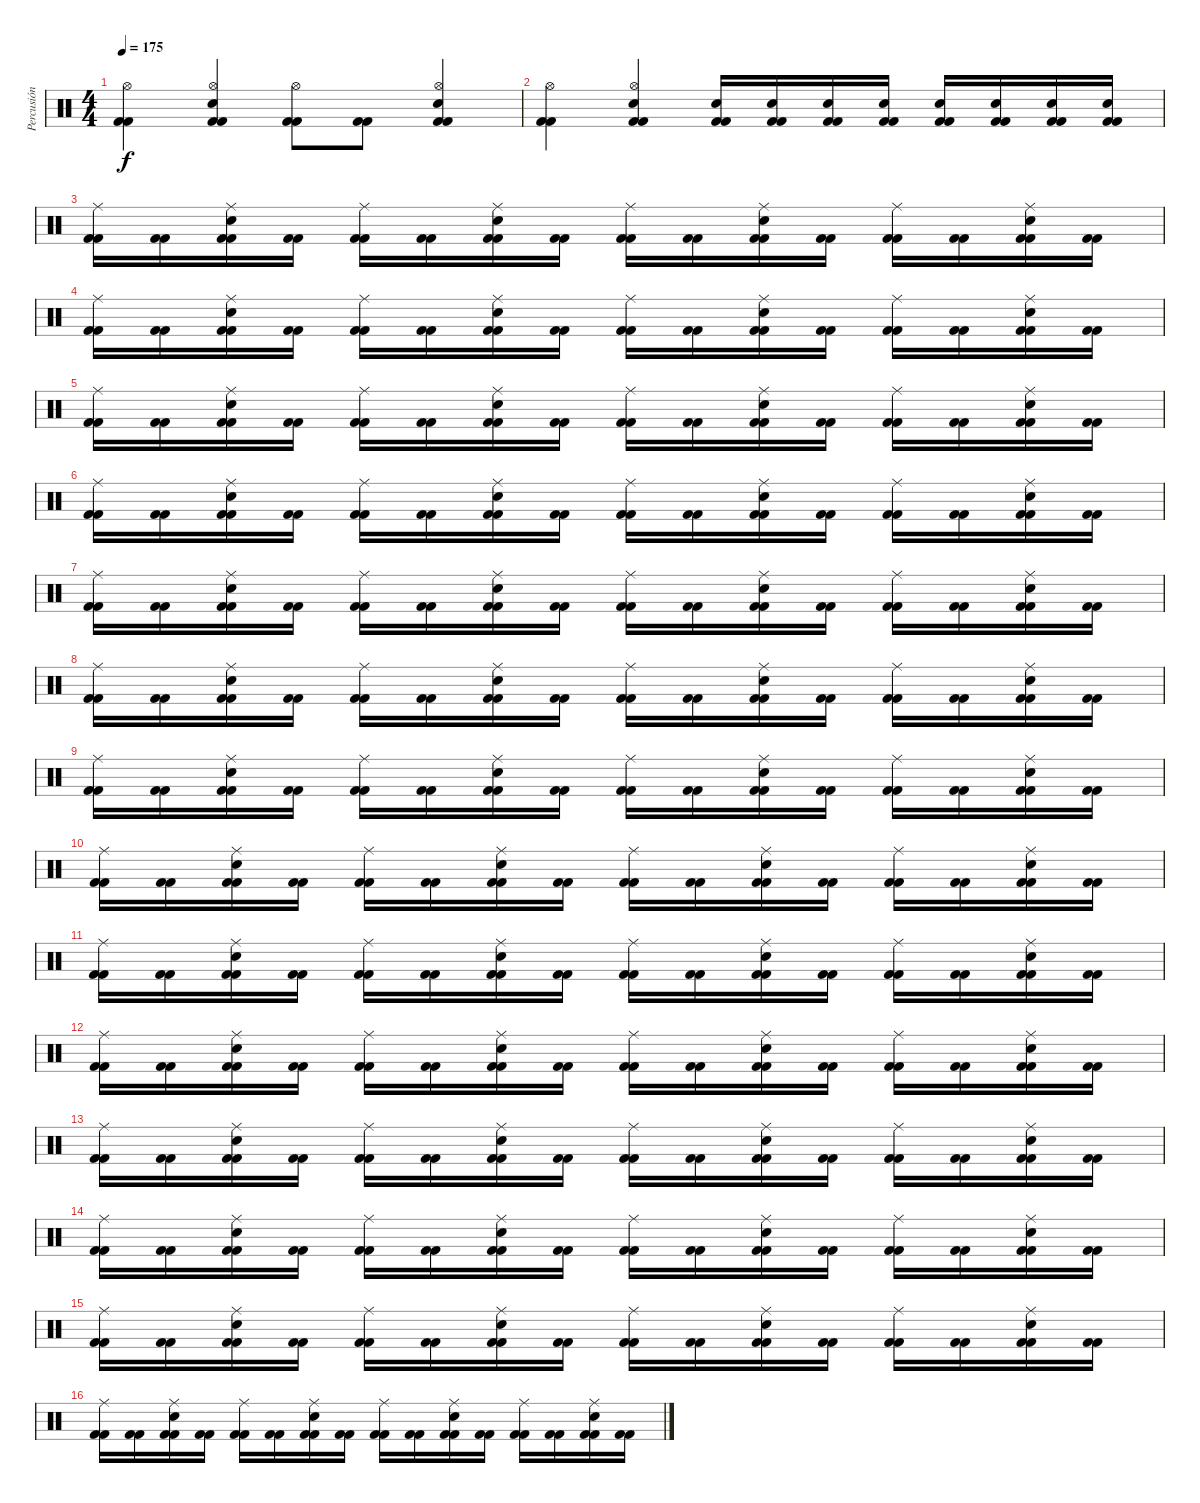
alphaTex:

\track ("Percusión" "Percusión") {instrument percussion}
\staff {score}
\articulation defaults
\ts (4 4)
\tempo 175
\clef neutral
\ks c
("Kick (hit) 2" "Kick (hit) 2" "Hi-Hat (open)").4{dy f} ("Kick (hit) 2" "Kick (hit) 2" "Electric Snare (hit)" "Hi-Hat (open)").4 ("Kick (hit) 2" "Kick (hit) 2" "Hi-Hat (open)").8 ("Kick (hit) 2" "Kick (hit) 2").8 ("Kick (hit) 2" "Kick (hit) 2" "Electric Snare (hit)" "Hi-Hat (open)").4 |
("Kick (hit) 2" "Kick (hit) 2" "Hi-Hat (open)").4 ("Kick (hit) 2" "Kick (hit) 2" "Electric Snare (hit)" "Hi-Hat (open)").4 ("Kick (hit) 2" "Kick (hit) 2" "Electric Snare (hit)").16 ("Kick (hit) 2" "Kick (hit) 2" "Electric Snare (hit)").16 ("Kick (hit) 2" "Kick (hit) 2" "Electric Snare (hit)").16 ("Kick (hit) 2" "Kick (hit) 2" "Electric Snare (hit)").16 ("Kick (hit) 2" "Kick (hit) 2" "Electric Snare (hit)").16 ("Kick (hit) 2" "Kick (hit) 2" "Electric Snare (hit)").16 ("Kick (hit) 2" "Kick (hit) 2" "Electric Snare (hit)").16 ("Kick (hit) 2" "Kick (hit) 2" "Electric Snare (hit)").16 |
("Kick (hit) 2" "Kick (hit) 2" "Ride (middle)").16 ("Kick (hit) 2" "Kick (hit) 2").16 ("Kick (hit) 2" "Kick (hit) 2" "Electric Snare (hit)" "Ride (middle)").16 ("Kick (hit) 2" "Kick (hit) 2").16 ("Kick (hit) 2" "Kick (hit) 2" "Ride (middle)").16 ("Kick (hit) 2" "Kick (hit) 2").16 ("Kick (hit) 2" "Kick (hit) 2" "Electric Snare (hit)" "Ride (middle)").16 ("Kick (hit) 2" "Kick (hit) 2").16 ("Kick (hit) 2" "Kick (hit) 2" "Ride (middle)").16 ("Kick (hit) 2" "Kick (hit) 2").16 ("Kick (hit) 2" "Kick (hit) 2" "Electric Snare (hit)" "Ride (middle)").16 ("Kick (hit) 2" "Kick (hit) 2").16 ("Kick (hit) 2" "Kick (hit) 2" "Ride (middle)").16 ("Kick (hit) 2" "Kick (hit) 2").16 ("Kick (hit) 2" "Kick (hit) 2" "Electric Snare (hit)" "Ride (middle)").16 ("Kick (hit) 2" "Kick (hit) 2").16 |
("Kick (hit) 2" "Kick (hit) 2" "Ride (middle)").16 ("Kick (hit) 2" "Kick (hit) 2").16 ("Kick (hit) 2" "Kick (hit) 2" "Electric Snare (hit)" "Ride (middle)").16 ("Kick (hit) 2" "Kick (hit) 2").16 ("Kick (hit) 2" "Kick (hit) 2" "Ride (middle)").16 ("Kick (hit) 2" "Kick (hit) 2").16 ("Kick (hit) 2" "Kick (hit) 2" "Electric Snare (hit)" "Ride (middle)").16 ("Kick (hit) 2" "Kick (hit) 2").16 ("Kick (hit) 2" "Kick (hit) 2" "Ride (middle)").16 ("Kick (hit) 2" "Kick (hit) 2").16 ("Kick (hit) 2" "Kick (hit) 2" "Electric Snare (hit)" "Ride (middle)").16 ("Kick (hit) 2" "Kick (hit) 2").16 ("Kick (hit) 2" "Kick (hit) 2" "Ride (middle)").16 ("Kick (hit) 2" "Kick (hit) 2").16 ("Kick (hit) 2" "Kick (hit) 2" "Electric Snare (hit)" "Ride (middle)").16 ("Kick (hit) 2" "Kick (hit) 2").16 |
("Kick (hit) 2" "Kick (hit) 2" "Ride (middle)").16 ("Kick (hit) 2" "Kick (hit) 2").16 ("Kick (hit) 2" "Kick (hit) 2" "Electric Snare (hit)" "Ride (middle)").16 ("Kick (hit) 2" "Kick (hit) 2").16 ("Kick (hit) 2" "Kick (hit) 2" "Ride (middle)").16 ("Kick (hit) 2" "Kick (hit) 2").16 ("Kick (hit) 2" "Kick (hit) 2" "Electric Snare (hit)" "Ride (middle)").16 ("Kick (hit) 2" "Kick (hit) 2").16 ("Kick (hit) 2" "Kick (hit) 2" "Ride (middle)").16 ("Kick (hit) 2" "Kick (hit) 2").16 ("Kick (hit) 2" "Kick (hit) 2" "Electric Snare (hit)" "Ride (middle)").16 ("Kick (hit) 2" "Kick (hit) 2").16 ("Kick (hit) 2" "Kick (hit) 2" "Ride (middle)").16 ("Kick (hit) 2" "Kick (hit) 2").16 ("Kick (hit) 2" "Kick (hit) 2" "Electric Snare (hit)" "Ride (middle)").16 ("Kick (hit) 2" "Kick (hit) 2").16 |
("Kick (hit) 2" "Kick (hit) 2" "Ride (middle)").16 ("Kick (hit) 2" "Kick (hit) 2").16 ("Kick (hit) 2" "Kick (hit) 2" "Electric Snare (hit)" "Ride (middle)").16 ("Kick (hit) 2" "Kick (hit) 2").16 ("Kick (hit) 2" "Kick (hit) 2" "Ride (middle)").16 ("Kick (hit) 2" "Kick (hit) 2").16 ("Kick (hit) 2" "Kick (hit) 2" "Electric Snare (hit)" "Ride (middle)").16 ("Kick (hit) 2" "Kick (hit) 2").16 ("Kick (hit) 2" "Kick (hit) 2" "Ride (middle)").16 ("Kick (hit) 2" "Kick (hit) 2").16 ("Kick (hit) 2" "Kick (hit) 2" "Electric Snare (hit)" "Ride (middle)").16 ("Kick (hit) 2" "Kick (hit) 2").16 ("Kick (hit) 2" "Kick (hit) 2" "Ride (middle)").16 ("Kick (hit) 2" "Kick (hit) 2").16 ("Kick (hit) 2" "Kick (hit) 2" "Electric Snare (hit)" "Ride (middle)").16 ("Kick (hit) 2" "Kick (hit) 2").16 |
("Kick (hit) 2" "Kick (hit) 2" "Ride (middle)").16 ("Kick (hit) 2" "Kick (hit) 2").16 ("Kick (hit) 2" "Kick (hit) 2" "Electric Snare (hit)" "Ride (middle)").16 ("Kick (hit) 2" "Kick (hit) 2").16 ("Kick (hit) 2" "Kick (hit) 2" "Ride (middle)").16 ("Kick (hit) 2" "Kick (hit) 2").16 ("Kick (hit) 2" "Kick (hit) 2" "Electric Snare (hit)" "Ride (middle)").16 ("Kick (hit) 2" "Kick (hit) 2").16 ("Kick (hit) 2" "Kick (hit) 2" "Ride (middle)").16 ("Kick (hit) 2" "Kick (hit) 2").16 ("Kick (hit) 2" "Kick (hit) 2" "Electric Snare (hit)" "Ride (middle)").16 ("Kick (hit) 2" "Kick (hit) 2").16 ("Kick (hit) 2" "Kick (hit) 2" "Ride (middle)").16 ("Kick (hit) 2" "Kick (hit) 2").16 ("Kick (hit) 2" "Kick (hit) 2" "Electric Snare (hit)" "Ride (middle)").16 ("Kick (hit) 2" "Kick (hit) 2").16 |
("Kick (hit) 2" "Kick (hit) 2" "Ride (middle)").16 ("Kick (hit) 2" "Kick (hit) 2").16 ("Kick (hit) 2" "Kick (hit) 2" "Electric Snare (hit)" "Ride (middle)").16 ("Kick (hit) 2" "Kick (hit) 2").16 ("Kick (hit) 2" "Kick (hit) 2" "Ride (middle)").16 ("Kick (hit) 2" "Kick (hit) 2").16 ("Kick (hit) 2" "Kick (hit) 2" "Electric Snare (hit)" "Ride (middle)").16 ("Kick (hit) 2" "Kick (hit) 2").16 ("Kick (hit) 2" "Kick (hit) 2" "Ride (middle)").16 ("Kick (hit) 2" "Kick (hit) 2").16 ("Kick (hit) 2" "Kick (hit) 2" "Electric Snare (hit)" "Ride (middle)").16 ("Kick (hit) 2" "Kick (hit) 2").16 ("Kick (hit) 2" "Kick (hit) 2" "Ride (middle)").16 ("Kick (hit) 2" "Kick (hit) 2").16 ("Kick (hit) 2" "Kick (hit) 2" "Electric Snare (hit)" "Ride (middle)").16 ("Kick (hit) 2" "Kick (hit) 2").16 |
("Kick (hit) 2" "Kick (hit) 2" "Ride (middle)").16 ("Kick (hit) 2" "Kick (hit) 2").16 ("Kick (hit) 2" "Kick (hit) 2" "Electric Snare (hit)" "Ride (middle)").16 ("Kick (hit) 2" "Kick (hit) 2").16 ("Kick (hit) 2" "Kick (hit) 2" "Ride (middle)").16 ("Kick (hit) 2" "Kick (hit) 2").16 ("Kick (hit) 2" "Kick (hit) 2" "Electric Snare (hit)" "Ride (middle)").16 ("Kick (hit) 2" "Kick (hit) 2").16 ("Kick (hit) 2" "Kick (hit) 2" "Ride (middle)").16 ("Kick (hit) 2" "Kick (hit) 2").16 ("Kick (hit) 2" "Kick (hit) 2" "Electric Snare (hit)" "Ride (middle)").16 ("Kick (hit) 2" "Kick (hit) 2").16 ("Kick (hit) 2" "Kick (hit) 2" "Ride (middle)").16 ("Kick (hit) 2" "Kick (hit) 2").16 ("Kick (hit) 2" "Kick (hit) 2" "Electric Snare (hit)" "Ride (middle)").16 ("Kick (hit) 2" "Kick (hit) 2").16 |
("Kick (hit) 2" "Kick (hit) 2" "Ride (middle)").16 ("Kick (hit) 2" "Kick (hit) 2").16 ("Kick (hit) 2" "Kick (hit) 2" "Electric Snare (hit)" "Ride (middle)").16 ("Kick (hit) 2" "Kick (hit) 2").16 ("Kick (hit) 2" "Kick (hit) 2" "Ride (middle)").16 ("Kick (hit) 2" "Kick (hit) 2").16 ("Kick (hit) 2" "Kick (hit) 2" "Electric Snare (hit)" "Ride (middle)").16 ("Kick (hit) 2" "Kick (hit) 2").16 ("Kick (hit) 2" "Kick (hit) 2" "Ride (middle)").16 ("Kick (hit) 2" "Kick (hit) 2").16 ("Kick (hit) 2" "Kick (hit) 2" "Electric Snare (hit)" "Ride (middle)").16 ("Kick (hit) 2" "Kick (hit) 2").16 ("Kick (hit) 2" "Kick (hit) 2" "Ride (middle)").16 ("Kick (hit) 2" "Kick (hit) 2").16 ("Kick (hit) 2" "Kick (hit) 2" "Electric Snare (hit)" "Ride (middle)").16 ("Kick (hit) 2" "Kick (hit) 2").16 |
("Kick (hit) 2" "Kick (hit) 2" "Ride (middle)").16 ("Kick (hit) 2" "Kick (hit) 2").16 ("Kick (hit) 2" "Kick (hit) 2" "Electric Snare (hit)" "Ride (middle)").16 ("Kick (hit) 2" "Kick (hit) 2").16 ("Kick (hit) 2" "Kick (hit) 2" "Ride (middle)").16 ("Kick (hit) 2" "Kick (hit) 2").16 ("Kick (hit) 2" "Kick (hit) 2" "Electric Snare (hit)" "Ride (middle)").16 ("Kick (hit) 2" "Kick (hit) 2").16 ("Kick (hit) 2" "Kick (hit) 2" "Ride (middle)").16 ("Kick (hit) 2" "Kick (hit) 2").16 ("Kick (hit) 2" "Kick (hit) 2" "Electric Snare (hit)" "Ride (middle)").16 ("Kick (hit) 2" "Kick (hit) 2").16 ("Kick (hit) 2" "Kick (hit) 2" "Ride (middle)").16 ("Kick (hit) 2" "Kick (hit) 2").16 ("Kick (hit) 2" "Kick (hit) 2" "Electric Snare (hit)" "Ride (middle)").16 ("Kick (hit) 2" "Kick (hit) 2").16 |
("Kick (hit) 2" "Kick (hit) 2" "Ride (middle)").16 ("Kick (hit) 2" "Kick (hit) 2").16 ("Kick (hit) 2" "Kick (hit) 2" "Electric Snare (hit)" "Ride (middle)").16 ("Kick (hit) 2" "Kick (hit) 2").16 ("Kick (hit) 2" "Kick (hit) 2" "Ride (middle)").16 ("Kick (hit) 2" "Kick (hit) 2").16 ("Kick (hit) 2" "Kick (hit) 2" "Electric Snare (hit)" "Ride (middle)").16 ("Kick (hit) 2" "Kick (hit) 2").16 ("Kick (hit) 2" "Kick (hit) 2" "Ride (middle)").16 ("Kick (hit) 2" "Kick (hit) 2").16 ("Kick (hit) 2" "Kick (hit) 2" "Electric Snare (hit)" "Ride (middle)").16 ("Kick (hit) 2" "Kick (hit) 2").16 ("Kick (hit) 2" "Kick (hit) 2" "Ride (middle)").16 ("Kick (hit) 2" "Kick (hit) 2").16 ("Kick (hit) 2" "Kick (hit) 2" "Electric Snare (hit)" "Ride (middle)").16 ("Kick (hit) 2" "Kick (hit) 2").16 |
("Kick (hit) 2" "Kick (hit) 2" "Ride (middle)").16 ("Kick (hit) 2" "Kick (hit) 2").16 ("Kick (hit) 2" "Kick (hit) 2" "Electric Snare (hit)" "Ride (middle)").16 ("Kick (hit) 2" "Kick (hit) 2").16 ("Kick (hit) 2" "Kick (hit) 2" "Ride (middle)").16 ("Kick (hit) 2" "Kick (hit) 2").16 ("Kick (hit) 2" "Kick (hit) 2" "Electric Snare (hit)" "Ride (middle)").16 ("Kick (hit) 2" "Kick (hit) 2").16 ("Kick (hit) 2" "Kick (hit) 2" "Ride (middle)").16 ("Kick (hit) 2" "Kick (hit) 2").16 ("Kick (hit) 2" "Kick (hit) 2" "Electric Snare (hit)" "Ride (middle)").16 ("Kick (hit) 2" "Kick (hit) 2").16 ("Kick (hit) 2" "Kick (hit) 2" "Ride (middle)").16 ("Kick (hit) 2" "Kick (hit) 2").16 ("Kick (hit) 2" "Kick (hit) 2" "Electric Snare (hit)" "Ride (middle)").16 ("Kick (hit) 2" "Kick (hit) 2").16 |
("Kick (hit) 2" "Kick (hit) 2" "Ride (middle)").16 ("Kick (hit) 2" "Kick (hit) 2").16 ("Kick (hit) 2" "Kick (hit) 2" "Electric Snare (hit)" "Ride (middle)").16 ("Kick (hit) 2" "Kick (hit) 2").16 ("Kick (hit) 2" "Kick (hit) 2" "Ride (middle)").16 ("Kick (hit) 2" "Kick (hit) 2").16 ("Kick (hit) 2" "Kick (hit) 2" "Electric Snare (hit)" "Ride (middle)").16 ("Kick (hit) 2" "Kick (hit) 2").16 ("Kick (hit) 2" "Kick (hit) 2" "Ride (middle)").16 ("Kick (hit) 2" "Kick (hit) 2").16 ("Kick (hit) 2" "Kick (hit) 2" "Electric Snare (hit)" "Ride (middle)").16 ("Kick (hit) 2" "Kick (hit) 2").16 ("Kick (hit) 2" "Kick (hit) 2" "Ride (middle)").16 ("Kick (hit) 2" "Kick (hit) 2").16 ("Kick (hit) 2" "Kick (hit) 2" "Electric Snare (hit)" "Ride (middle)").16 ("Kick (hit) 2" "Kick (hit) 2").16 |
("Kick (hit) 2" "Kick (hit) 2" "Ride (middle)").16 ("Kick (hit) 2" "Kick (hit) 2").16 ("Kick (hit) 2" "Kick (hit) 2" "Electric Snare (hit)" "Ride (middle)").16 ("Kick (hit) 2" "Kick (hit) 2").16 ("Kick (hit) 2" "Kick (hit) 2" "Ride (middle)").16 ("Kick (hit) 2" "Kick (hit) 2").16 ("Kick (hit) 2" "Kick (hit) 2" "Electric Snare (hit)" "Ride (middle)").16 ("Kick (hit) 2" "Kick (hit) 2").16 ("Kick (hit) 2" "Kick (hit) 2" "Ride (middle)").16 ("Kick (hit) 2" "Kick (hit) 2").16 ("Kick (hit) 2" "Kick (hit) 2" "Electric Snare (hit)" "Ride (middle)").16 ("Kick (hit) 2" "Kick (hit) 2").16 ("Kick (hit) 2" "Kick (hit) 2" "Ride (middle)").16 ("Kick (hit) 2" "Kick (hit) 2").16 ("Kick (hit) 2" "Kick (hit) 2" "Electric Snare (hit)" "Ride (middle)").16 ("Kick (hit) 2" "Kick (hit) 2").16 |
("Kick (hit) 2" "Kick (hit) 2" "Ride (middle)").16 ("Kick (hit) 2" "Kick (hit) 2").16 ("Kick (hit) 2" "Kick (hit) 2" "Electric Snare (hit)" "Ride (middle)").16 ("Kick (hit) 2" "Kick (hit) 2").16 ("Kick (hit) 2" "Kick (hit) 2" "Ride (middle)").16 ("Kick (hit) 2" "Kick (hit) 2").16 ("Kick (hit) 2" "Kick (hit) 2" "Electric Snare (hit)" "Ride (middle)").16 ("Kick (hit) 2" "Kick (hit) 2").16 ("Kick (hit) 2" "Kick (hit) 2" "Ride (middle)").16 ("Kick (hit) 2" "Kick (hit) 2").16 ("Kick (hit) 2" "Kick (hit) 2" "Electric Snare (hit)" "Ride (middle)").16 ("Kick (hit) 2" "Kick (hit) 2").16 ("Kick (hit) 2" "Kick (hit) 2" "Ride (middle)").16 ("Kick (hit) 2" "Kick (hit) 2").16 ("Kick (hit) 2" "Kick (hit) 2" "Electric Snare (hit)" "Ride (middle)").16 ("Kick (hit) 2" "Kick (hit) 2").16
